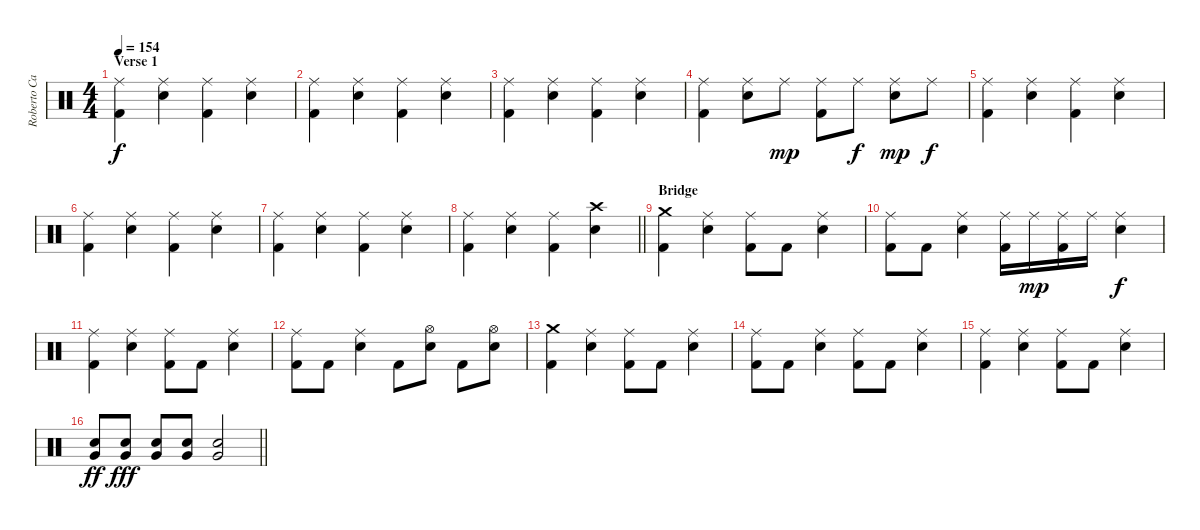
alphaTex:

\track ("Roberto Cappa - Drums" "Roberto Ca") {instrument percussion}
\staff
\articulation defaults
\ts (4 4)
\section ("" "Verse 1")
\tempo 154
\clef neutral
\ks c
("Ride (middle)" "Kick (hit) 2").4{dy f} ("Ride (middle)" "Electric Snare (hit)").4 ("Ride (middle)" "Kick (hit) 2").4 ("Ride (middle)" "Electric Snare (hit)").4 |
("Ride (middle)" "Kick (hit) 2").4 ("Ride (middle)" "Electric Snare (hit)").4 ("Ride (middle)" "Kick (hit) 2").4 ("Ride (middle)" "Electric Snare (hit)").4 |
("Ride (middle)" "Kick (hit) 2").4 ("Ride (middle)" "Electric Snare (hit)").4 ("Ride (middle)" "Kick (hit) 2").4 ("Ride (middle)" "Electric Snare (hit)").4 |
("Ride (middle)" "Kick (hit) 2").4 ("Ride (middle)" "Electric Snare (hit)").8 "Ride (middle)".8{dy mp} ("Ride (middle)" "Kick (hit) 2").8 "Ride (middle)".8{dy f} ("Ride (middle)" "Electric Snare (hit)").8{dy mp} "Ride (middle)".8{dy f} |
("Ride (middle)" "Kick (hit) 2").4 ("Ride (middle)" "Electric Snare (hit)").4 ("Ride (middle)" "Kick (hit) 2").4 ("Ride (middle)" "Electric Snare (hit)").4 |
("Ride (middle)" "Kick (hit) 2").4 ("Ride (middle)" "Electric Snare (hit)").4 ("Ride (middle)" "Kick (hit) 2").4 ("Ride (middle)" "Electric Snare (hit)").4 |
("Ride (middle)" "Kick (hit) 2").4 ("Ride (middle)" "Electric Snare (hit)").4 ("Ride (middle)" "Kick (hit) 2").4 ("Ride (middle)" "Electric Snare (hit)").4 |
\barLineRight lightlight
("Ride (middle)" "Kick (hit) 2").4 ("Ride (middle)" "Electric Snare (hit)").4 ("Ride (middle)" "Kick (hit) 2").4 ("Crash high (hit)" "Electric Snare (hit)").4 |
\section ("" "Bridge")
("Crash medium (hit)" "Kick (hit) 2").4 ("Ride (middle)" "Electric Snare (hit)").4 ("Ride (middle)" "Kick (hit) 2").8 "Kick (hit) 2".8 ("Ride (middle)" "Electric Snare (hit)").4 |
("Ride (middle)" "Kick (hit) 2").8 "Kick (hit) 2".8 ("Ride (middle)" "Electric Snare (hit)").4 ("Ride (middle)" "Kick (hit) 2").16 "Ride (middle)".16{dy mp} ("Ride (middle)" "Kick (hit) 2").16 "Ride (middle)".16 ("Ride (middle)" "Electric Snare (hit)").4{dy f} |
("Ride (middle)" "Kick (hit) 2").4 ("Ride (middle)" "Electric Snare (hit)").4 ("Ride (middle)" "Kick (hit) 2").8 "Kick (hit) 2".8 ("Ride (middle)" "Electric Snare (hit)").4 |
("Ride (middle)" "Kick (hit) 2").8 "Kick (hit) 2".8 ("Ride (middle)" "Electric Snare (hit)").4 "Kick (hit) 2".8 ("Hi-Hat (open)" "Electric Snare (hit)").8 "Kick (hit) 2".8 ("Hi-Hat (open)" "Electric Snare (hit)").8 |
("Crash medium (hit)" "Kick (hit) 2").4 ("Ride (middle)" "Electric Snare (hit)").4 ("Ride (middle)" "Kick (hit) 2").8 "Kick (hit) 2".8 ("Ride (middle)" "Electric Snare (hit)").4 |
("Ride (middle)" "Kick (hit) 2").8 "Kick (hit) 2".8 ("Ride (middle)" "Electric Snare (hit)").4 ("Ride (middle)" "Kick (hit) 2").8 "Kick (hit) 2".8 ("Ride (middle)" "Electric Snare (hit)").4 |
("Ride (middle)" "Kick (hit) 2").4 ("Ride (middle)" "Electric Snare (hit)").4 ("Ride (middle)" "Kick (hit) 2").8 "Kick (hit) 2".8 ("Ride (middle)" "Electric Snare (hit)").4 |
\barLineRight lightlight
("Very Low Tom (hit)" "Electric Snare (hit)").8{dy ff} ("Very Low Tom (hit)" "Electric Snare (hit)").8{dy fff} ("Very Low Tom (hit)" "Electric Snare (hit)").8 ("Very Low Tom (hit)" "Electric Snare (hit)").8 ("Very Low Tom (hit)" "Electric Snare (hit)").2
